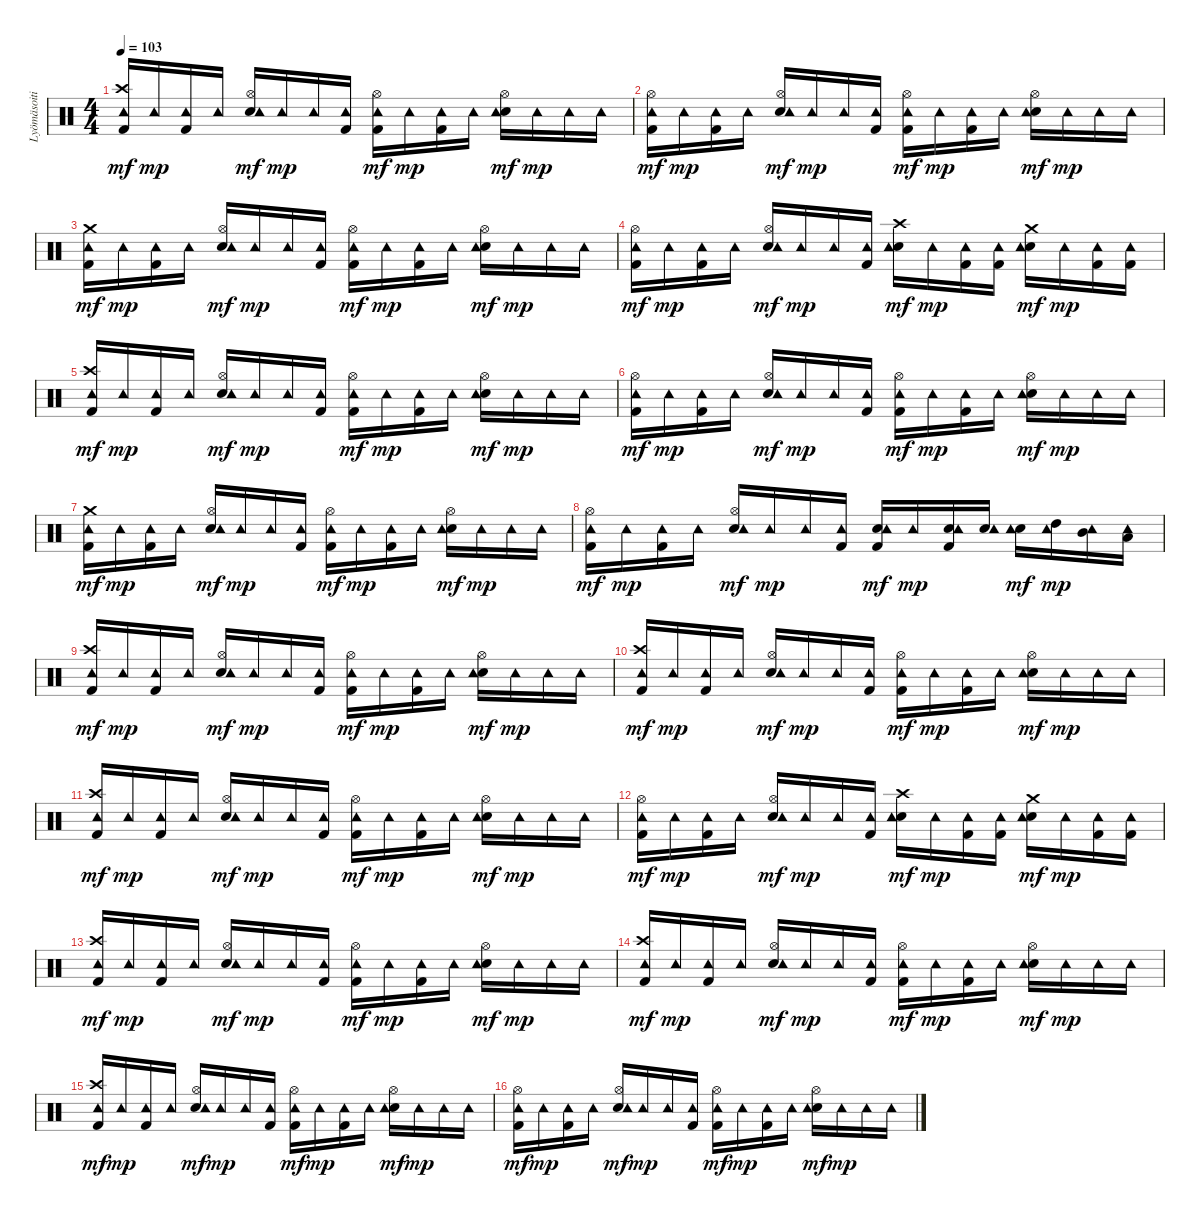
\track ("Lyömäsoitin" "Lyömäsoiti") {instrument percussion}
\staff {score}
\articulation defaults
\ts (4 4)
\tempo 103
\clef neutral
\ks c
("Kick (hit) 2" "Crash high (hit)" "Tambourine (hit)").16{dy mf} "Tambourine (hit)".16{dy mp} ("Kick (hit) 2" "Tambourine (hit)").16 "Tambourine (hit)".16 ("Hi-Hat (open)" "Snare (hit) 2" "Tambourine (hit)").16{dy mf} "Tambourine (hit)".16{dy mp} "Tambourine (hit)".16 ("Kick (hit) 2" "Tambourine (hit)").16 ("Kick (hit) 2" "Hi-Hat (open)" "Tambourine (hit)").16{dy mf} "Tambourine (hit)".16{dy mp} ("Kick (hit) 2" "Tambourine (hit)").16 "Tambourine (hit)".16 ("Hi-Hat (open)" "Snare (hit) 2" "Tambourine (hit)").16{dy mf} "Tambourine (hit)".16{dy mp} "Tambourine (hit)".16 "Tambourine (hit)".16 |
("Kick (hit) 2" "Hi-Hat (open)" "Tambourine (hit)").16{dy mf} "Tambourine (hit)".16{dy mp} ("Kick (hit) 2" "Tambourine (hit)").16 "Tambourine (hit)".16 ("Hi-Hat (open)" "Snare (hit) 2" "Tambourine (hit)").16{dy mf} "Tambourine (hit)".16{dy mp} "Tambourine (hit)".16 ("Kick (hit) 2" "Tambourine (hit)").16 ("Kick (hit) 2" "Hi-Hat (open)" "Tambourine (hit)").16{dy mf} "Tambourine (hit)".16{dy mp} ("Kick (hit) 2" "Tambourine (hit)").16 "Tambourine (hit)".16 ("Hi-Hat (open)" "Snare (hit) 2" "Tambourine (hit)").16{dy mf} "Tambourine (hit)".16{dy mp} "Tambourine (hit)".16 "Tambourine (hit)".16 |
("Kick (hit) 2" "Crash medium (hit)" "Tambourine (hit)").16{dy mf} "Tambourine (hit)".16{dy mp} ("Kick (hit) 2" "Tambourine (hit)").16 "Tambourine (hit)".16 ("Hi-Hat (open)" "Snare (hit) 2" "Tambourine (hit)").16{dy mf} "Tambourine (hit)".16{dy mp} "Tambourine (hit)".16 ("Kick (hit) 2" "Tambourine (hit)").16 ("Kick (hit) 2" "Hi-Hat (open)" "Tambourine (hit)").16{dy mf} "Tambourine (hit)".16{dy mp} ("Kick (hit) 2" "Tambourine (hit)").16 "Tambourine (hit)".16 ("Hi-Hat (open)" "Snare (hit) 2" "Tambourine (hit)").16{dy mf} "Tambourine (hit)".16{dy mp} "Tambourine (hit)".16 "Tambourine (hit)".16 |
("Kick (hit) 2" "Hi-Hat (open)" "Tambourine (hit)").16{dy mf} "Tambourine (hit)".16{dy mp} ("Kick (hit) 2" "Tambourine (hit)").16 "Tambourine (hit)".16 ("Hi-Hat (open)" "Snare (hit) 2" "Tambourine (hit)").16{dy mf} "Tambourine (hit)".16{dy mp} "Tambourine (hit)".16 ("Kick (hit) 2" "Tambourine (hit)").16 ("Crash high (hit)" "Snare (hit) 2" "Tambourine (hit)").16{dy mf} "Tambourine (hit)".16{dy mp} ("Kick (hit) 2" "Tambourine (hit)").16 ("Kick (hit) 2" "Tambourine (hit)").16 ("Crash medium (hit)" "Snare (hit) 2" "Tambourine (hit)").16{dy mf} "Tambourine (hit)".16{dy mp} ("Kick (hit) 2" "Tambourine (hit)").16 ("Kick (hit) 2" "Tambourine (hit)").16 |
("Kick (hit) 2" "Crash high (hit)" "Tambourine (hit)").16{dy mf} "Tambourine (hit)".16{dy mp} ("Kick (hit) 2" "Tambourine (hit)").16 "Tambourine (hit)".16 ("Hi-Hat (open)" "Snare (hit) 2" "Tambourine (hit)").16{dy mf} "Tambourine (hit)".16{dy mp} "Tambourine (hit)".16 ("Kick (hit) 2" "Tambourine (hit)").16 ("Kick (hit) 2" "Hi-Hat (open)" "Tambourine (hit)").16{dy mf} "Tambourine (hit)".16{dy mp} ("Kick (hit) 2" "Tambourine (hit)").16 "Tambourine (hit)".16 ("Hi-Hat (open)" "Snare (hit) 2" "Tambourine (hit)").16{dy mf} "Tambourine (hit)".16{dy mp} "Tambourine (hit)".16 "Tambourine (hit)".16 |
("Kick (hit) 2" "Hi-Hat (open)" "Tambourine (hit)").16{dy mf} "Tambourine (hit)".16{dy mp} ("Kick (hit) 2" "Tambourine (hit)").16 "Tambourine (hit)".16 ("Hi-Hat (open)" "Snare (hit) 2" "Tambourine (hit)").16{dy mf} "Tambourine (hit)".16{dy mp} "Tambourine (hit)".16 ("Kick (hit) 2" "Tambourine (hit)").16 ("Kick (hit) 2" "Hi-Hat (open)" "Tambourine (hit)").16{dy mf} "Tambourine (hit)".16{dy mp} ("Kick (hit) 2" "Tambourine (hit)").16 "Tambourine (hit)".16 ("Hi-Hat (open)" "Snare (hit) 2" "Tambourine (hit)").16{dy mf} "Tambourine (hit)".16{dy mp} "Tambourine (hit)".16 "Tambourine (hit)".16 |
("Kick (hit) 2" "Crash medium (hit)" "Tambourine (hit)").16{dy mf} "Tambourine (hit)".16{dy mp} ("Kick (hit) 2" "Tambourine (hit)").16 "Tambourine (hit)".16 ("Hi-Hat (open)" "Snare (hit) 2" "Tambourine (hit)").16{dy mf} "Tambourine (hit)".16{dy mp} "Tambourine (hit)".16 ("Kick (hit) 2" "Tambourine (hit)").16 ("Kick (hit) 2" "Hi-Hat (open)" "Tambourine (hit)").16{dy mf} "Tambourine (hit)".16{dy mp} ("Kick (hit) 2" "Tambourine (hit)").16 "Tambourine (hit)".16 ("Hi-Hat (open)" "Snare (hit) 2" "Tambourine (hit)").16{dy mf} "Tambourine (hit)".16{dy mp} "Tambourine (hit)".16 "Tambourine (hit)".16 |
("Kick (hit) 2" "Hi-Hat (open)" "Tambourine (hit)").16{dy mf} "Tambourine (hit)".16{dy mp} ("Kick (hit) 2" "Tambourine (hit)").16 "Tambourine (hit)".16 ("Hi-Hat (open)" "Snare (hit) 2" "Tambourine (hit)").16{dy mf} "Tambourine (hit)".16{dy mp} "Tambourine (hit)".16 ("Kick (hit) 2" "Tambourine (hit)").16 ("Kick (hit) 2" "Snare (hit) 2" "Tambourine (hit)").16{dy mf} "Tambourine (hit)".16{dy mp} ("Kick (hit) 2" "Snare (hit) 2" "Tambourine (hit)").16 ("Snare (hit) 2" "Tambourine (hit)").16 ("Snare (hit) 2" "Tambourine (hit)").16{dy mf} ("High Tom (hit)" "Tambourine (hit)").16{dy mp} ("Mid Tom (hit)" "Tambourine (hit)").16 ("Low Tom (hit)" "Tambourine (hit)").16 |
("Kick (hit) 2" "Crash high (hit)" "Tambourine (hit)").16{dy mf} "Tambourine (hit)".16{dy mp} ("Kick (hit) 2" "Tambourine (hit)").16 "Tambourine (hit)".16 ("Hi-Hat (open)" "Snare (hit) 2" "Tambourine (hit)").16{dy mf} "Tambourine (hit)".16{dy mp} "Tambourine (hit)".16 ("Kick (hit) 2" "Tambourine (hit)").16 ("Kick (hit) 2" "Hi-Hat (open)" "Tambourine (hit)").16{dy mf} "Tambourine (hit)".16{dy mp} ("Kick (hit) 2" "Tambourine (hit)").16 "Tambourine (hit)".16 ("Hi-Hat (open)" "Snare (hit) 2" "Tambourine (hit)").16{dy mf} "Tambourine (hit)".16{dy mp} "Tambourine (hit)".16 "Tambourine (hit)".16 |
("Kick (hit) 2" "Crash high (hit)" "Tambourine (hit)").16{dy mf} "Tambourine (hit)".16{dy mp} ("Kick (hit) 2" "Tambourine (hit)").16 "Tambourine (hit)".16 ("Hi-Hat (open)" "Snare (hit) 2" "Tambourine (hit)").16{dy mf} "Tambourine (hit)".16{dy mp} "Tambourine (hit)".16 ("Kick (hit) 2" "Tambourine (hit)").16 ("Kick (hit) 2" "Hi-Hat (open)" "Tambourine (hit)").16{dy mf} "Tambourine (hit)".16{dy mp} ("Kick (hit) 2" "Tambourine (hit)").16 "Tambourine (hit)".16 ("Hi-Hat (open)" "Snare (hit) 2" "Tambourine (hit)").16{dy mf} "Tambourine (hit)".16{dy mp} "Tambourine (hit)".16 "Tambourine (hit)".16 |
("Kick (hit) 2" "Crash high (hit)" "Tambourine (hit)").16{dy mf} "Tambourine (hit)".16{dy mp} ("Kick (hit) 2" "Tambourine (hit)").16 "Tambourine (hit)".16 ("Hi-Hat (open)" "Snare (hit) 2" "Tambourine (hit)").16{dy mf} "Tambourine (hit)".16{dy mp} "Tambourine (hit)".16 ("Kick (hit) 2" "Tambourine (hit)").16 ("Kick (hit) 2" "Hi-Hat (open)" "Tambourine (hit)").16{dy mf} "Tambourine (hit)".16{dy mp} ("Kick (hit) 2" "Tambourine (hit)").16 "Tambourine (hit)".16 ("Hi-Hat (open)" "Snare (hit) 2" "Tambourine (hit)").16{dy mf} "Tambourine (hit)".16{dy mp} "Tambourine (hit)".16 "Tambourine (hit)".16 |
("Kick (hit) 2" "Hi-Hat (open)" "Tambourine (hit)").16{dy mf} "Tambourine (hit)".16{dy mp} ("Kick (hit) 2" "Tambourine (hit)").16 "Tambourine (hit)".16 ("Hi-Hat (open)" "Snare (hit) 2" "Tambourine (hit)").16{dy mf} "Tambourine (hit)".16{dy mp} "Tambourine (hit)".16 ("Kick (hit) 2" "Tambourine (hit)").16 ("Crash high (hit)" "Snare (hit) 2" "Tambourine (hit)").16{dy mf} "Tambourine (hit)".16{dy mp} ("Kick (hit) 2" "Tambourine (hit)").16 ("Kick (hit) 2" "Tambourine (hit)").16 ("Crash medium (hit)" "Snare (hit) 2" "Tambourine (hit)").16{dy mf} "Tambourine (hit)".16{dy mp} ("Kick (hit) 2" "Tambourine (hit)").16 ("Kick (hit) 2" "Tambourine (hit)").16 |
("Kick (hit) 2" "Crash high (hit)" "Tambourine (hit)").16{dy mf} "Tambourine (hit)".16{dy mp} ("Kick (hit) 2" "Tambourine (hit)").16 "Tambourine (hit)".16 ("Hi-Hat (open)" "Snare (hit) 2" "Tambourine (hit)").16{dy mf} "Tambourine (hit)".16{dy mp} "Tambourine (hit)".16 ("Kick (hit) 2" "Tambourine (hit)").16 ("Kick (hit) 2" "Hi-Hat (open)" "Tambourine (hit)").16{dy mf} "Tambourine (hit)".16{dy mp} ("Kick (hit) 2" "Tambourine (hit)").16 "Tambourine (hit)".16 ("Hi-Hat (open)" "Snare (hit) 2" "Tambourine (hit)").16{dy mf} "Tambourine (hit)".16{dy mp} "Tambourine (hit)".16 "Tambourine (hit)".16 |
("Kick (hit) 2" "Crash high (hit)" "Tambourine (hit)").16{dy mf} "Tambourine (hit)".16{dy mp} ("Kick (hit) 2" "Tambourine (hit)").16 "Tambourine (hit)".16 ("Hi-Hat (open)" "Snare (hit) 2" "Tambourine (hit)").16{dy mf} "Tambourine (hit)".16{dy mp} "Tambourine (hit)".16 ("Kick (hit) 2" "Tambourine (hit)").16 ("Kick (hit) 2" "Hi-Hat (open)" "Tambourine (hit)").16{dy mf} "Tambourine (hit)".16{dy mp} ("Kick (hit) 2" "Tambourine (hit)").16 "Tambourine (hit)".16 ("Hi-Hat (open)" "Snare (hit) 2" "Tambourine (hit)").16{dy mf} "Tambourine (hit)".16{dy mp} "Tambourine (hit)".16 "Tambourine (hit)".16 |
("Kick (hit) 2" "Crash high (hit)" "Tambourine (hit)").16{dy mf} "Tambourine (hit)".16{dy mp} ("Kick (hit) 2" "Tambourine (hit)").16 "Tambourine (hit)".16 ("Hi-Hat (open)" "Snare (hit) 2" "Tambourine (hit)").16{dy mf} "Tambourine (hit)".16{dy mp} "Tambourine (hit)".16 ("Kick (hit) 2" "Tambourine (hit)").16 ("Kick (hit) 2" "Hi-Hat (open)" "Tambourine (hit)").16{dy mf} "Tambourine (hit)".16{dy mp} ("Kick (hit) 2" "Tambourine (hit)").16 "Tambourine (hit)".16 ("Hi-Hat (open)" "Snare (hit) 2" "Tambourine (hit)").16{dy mf} "Tambourine (hit)".16{dy mp} "Tambourine (hit)".16 "Tambourine (hit)".16 |
("Kick (hit) 2" "Hi-Hat (open)" "Tambourine (hit)").16{dy mf} "Tambourine (hit)".16{dy mp} ("Kick (hit) 2" "Tambourine (hit)").16 "Tambourine (hit)".16 ("Hi-Hat (open)" "Snare (hit) 2" "Tambourine (hit)").16{dy mf} "Tambourine (hit)".16{dy mp} "Tambourine (hit)".16 ("Kick (hit) 2" "Tambourine (hit)").16 ("Kick (hit) 2" "Hi-Hat (open)" "Tambourine (hit)").16{dy mf} "Tambourine (hit)".16{dy mp} ("Kick (hit) 2" "Tambourine (hit)").16 "Tambourine (hit)".16 ("Hi-Hat (open)" "Snare (hit) 2" "Tambourine (hit)").16{dy mf} "Tambourine (hit)".16{dy mp} "Tambourine (hit)".16 "Tambourine (hit)".16
